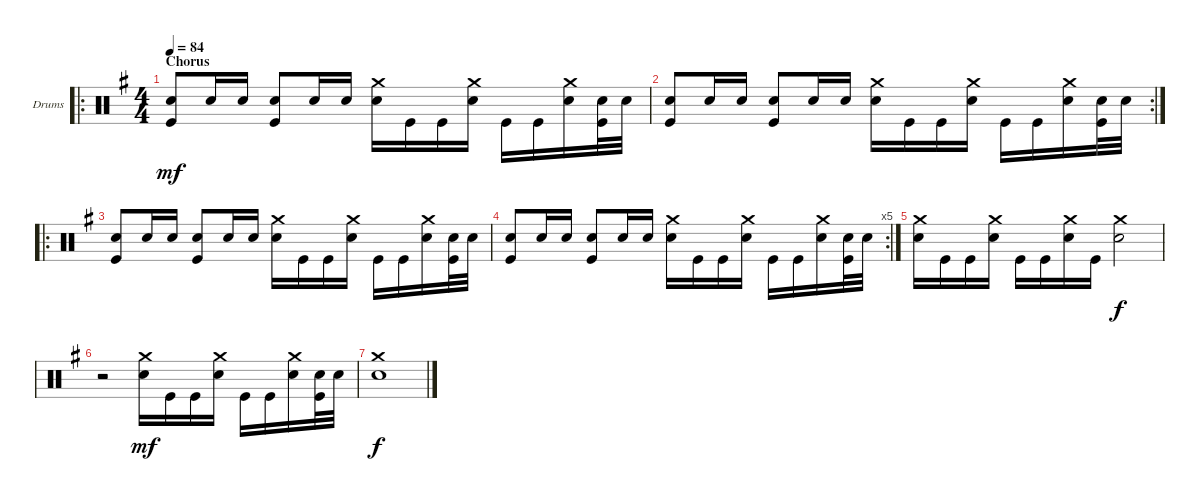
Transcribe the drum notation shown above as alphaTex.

\bracketExtendMode groupsimilarinstruments
\firstSystemTrackNameOrientation horizontal
\otherSystemsTrackNameOrientation horizontal
\track ("Drumkit" "Drums") {instrument percussion}
\staff {score}
\articulation defaults
\ro
\ts (4 4)
\section ("" "Chorus")
\tempo 84
\clef neutral
\scale
1.04288
\ks g
("Snare (hit) 2" "Kick (hit)").8{dy mf} "Snare (hit) 2".16 "Snare (hit) 2".16 ("Snare (hit) 2" "Kick (hit)").8 "Snare (hit) 2".16 "Snare (hit) 2".16 ("Crash medium (hit)" "Snare (hit) 2").16 "Kick (hit)".16 "Kick (hit)".16 ("Crash medium (hit)" "Snare (hit) 2").16 "Kick (hit)".16 "Kick (hit)".16 ("Crash medium (hit)" "Snare (hit) 2").16 ("Snare (hit) 2" "Kick (hit)").32 "Snare (hit) 2".32 |
\rc 2
\scale
0.957125 ("Snare (hit) 2" "Kick (hit)").8 "Snare (hit) 2".16 "Snare (hit) 2".16 ("Snare (hit) 2" "Kick (hit)").8 "Snare (hit) 2".16 "Snare (hit) 2".16 ("Crash medium (hit)" "Snare (hit) 2").16 "Kick (hit)".16 "Kick (hit)".16 ("Crash medium (hit)" "Snare (hit) 2").16 "Kick (hit)".16 "Kick (hit)".16 ("Crash medium (hit)" "Snare (hit) 2").16 ("Snare (hit) 2" "Kick (hit)").32 "Snare (hit) 2".32 |
\ro
\scale
1.04288 ("Snare (hit) 2" "Kick (hit)").8 "Snare (hit) 2".16 "Snare (hit) 2".16 ("Snare (hit) 2" "Kick (hit)").8 "Snare (hit) 2".16 "Snare (hit) 2".16 ("Crash medium (hit)" "Snare (hit) 2").16 "Kick (hit)".16 "Kick (hit)".16 ("Crash medium (hit)" "Snare (hit) 2").16 "Kick (hit)".16 "Kick (hit)".16 ("Crash medium (hit)" "Snare (hit) 2").16 ("Snare (hit) 2" "Kick (hit)").32 "Snare (hit) 2".32 |
\rc 5
\scale
0.957125 ("Snare (hit) 2" "Kick (hit)").8 "Snare (hit) 2".16 "Snare (hit) 2".16 ("Snare (hit) 2" "Kick (hit)").8 "Snare (hit) 2".16 "Snare (hit) 2".16 ("Crash medium (hit)" "Snare (hit) 2").16 "Kick (hit)".16 "Kick (hit)".16 ("Crash medium (hit)" "Snare (hit) 2").16 "Kick (hit)".16 "Kick (hit)".16 ("Crash medium (hit)" "Snare (hit) 2").16 ("Snare (hit) 2" "Kick (hit)").32 "Snare (hit) 2".32 |
\scale
1.04288 ("Crash medium (hit)" "Snare (hit) 2").16 "Kick (hit)".16 "Kick (hit)".16 ("Crash medium (hit)" "Snare (hit) 2").16 "Kick (hit)".16 "Kick (hit)".16 ("Crash medium (hit)" "Snare (hit) 2").16 "Kick (hit)".16 ("Crash medium (hit)" "Snare (hit) 2").2{dy f} |
\scale
0.957125 r.2 ("Crash medium (hit)" "Snare (hit) 2").16{dy mf} "Kick (hit)".16 "Kick (hit)".16 ("Crash medium (hit)" "Snare (hit) 2").16 "Kick (hit)".16 "Kick (hit)".16 ("Crash medium (hit)" "Snare (hit) 2").16 ("Snare (hit) 2" "Kick (hit)").32 "Snare (hit) 2".32 |
("Crash medium (hit)" "Snare (hit) 2").1{dy f}
